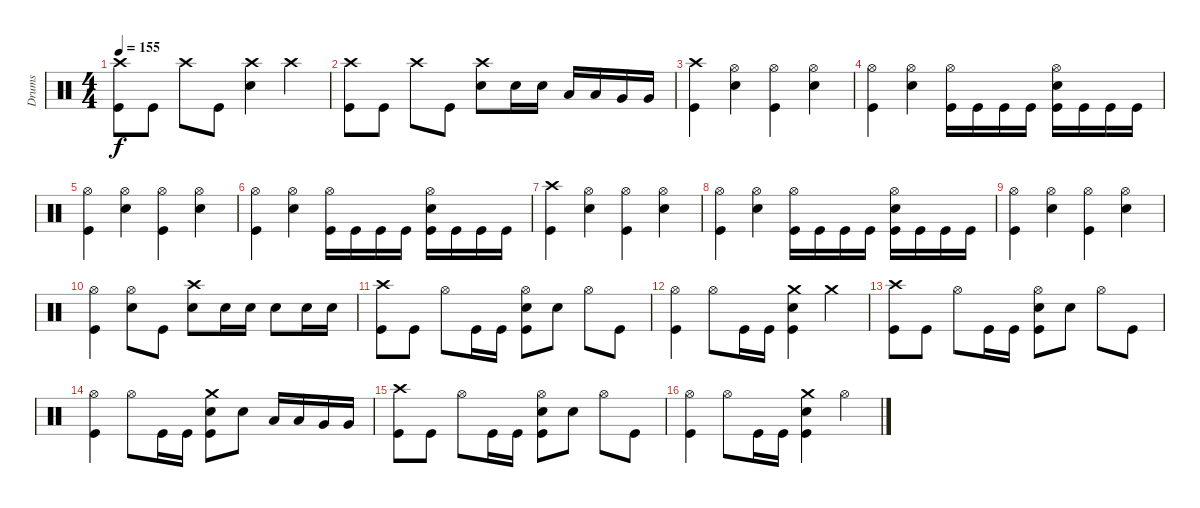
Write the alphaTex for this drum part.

\track ("Drums" "Drums") {instrument percussion}
\staff {score}
\articulation defaults
\ts (4 4)
\tempo 155
\clef neutral
\ks c
("Crash high (hit)" "Kick (hit)").8{dy f} "Kick (hit)".8 "Crash high (hit)".8 "Kick (hit)".8 ("Crash high (hit)" "Snare (hit) 2").4 "Crash high (hit)".4 |
("Crash high (hit)" "Kick (hit)").8 "Kick (hit)".8 "Crash high (hit)".8 "Kick (hit)".8 ("Crash high (hit)" "Snare (hit) 2").8 "Snare (hit) 2".16 "Snare (hit) 2".16 "Low Tom (hit)".16 "Low Tom (hit)".16 "Very Low Tom (hit)".16 "Very Low Tom (hit)".16 |
("Crash high (hit)" "Kick (hit)").4 ("Hi-Hat (open)" "Snare (hit) 2").4 ("Hi-Hat (open)" "Kick (hit)").4 ("Hi-Hat (open)" "Snare (hit) 2").4 |
("Hi-Hat (open)" "Kick (hit)").4 ("Hi-Hat (open)" "Snare (hit) 2").4 ("Hi-Hat (open)" "Kick (hit)").16 "Kick (hit)".16 "Kick (hit)".16 "Kick (hit)".16 ("Hi-Hat (open)" "Snare (hit) 2" "Kick (hit)").16 "Kick (hit)".16 "Kick (hit)".16 "Kick (hit)".16 |
("Hi-Hat (open)" "Kick (hit)").4 ("Hi-Hat (open)" "Snare (hit) 2").4 ("Hi-Hat (open)" "Kick (hit)").4 ("Hi-Hat (open)" "Snare (hit) 2").4 |
("Hi-Hat (open)" "Kick (hit)").4 ("Hi-Hat (open)" "Snare (hit) 2").4 ("Hi-Hat (open)" "Kick (hit)").16 "Kick (hit)".16 "Kick (hit)".16 "Kick (hit)".16 ("Hi-Hat (open)" "Snare (hit) 2" "Kick (hit)").16 "Kick (hit)".16 "Kick (hit)".16 "Kick (hit)".16 |
("Crash high (hit)" "Kick (hit)").4 ("Hi-Hat (open)" "Snare (hit) 2").4 ("Hi-Hat (open)" "Kick (hit)").4 ("Hi-Hat (open)" "Snare (hit) 2").4 |
("Hi-Hat (open)" "Kick (hit)").4 ("Hi-Hat (open)" "Snare (hit) 2").4 ("Hi-Hat (open)" "Kick (hit)").16 "Kick (hit)".16 "Kick (hit)".16 "Kick (hit)".16 ("Hi-Hat (open)" "Snare (hit) 2" "Kick (hit)").16 "Kick (hit)".16 "Kick (hit)".16 "Kick (hit)".16 |
("Hi-Hat (open)" "Kick (hit)").4 ("Hi-Hat (open)" "Snare (hit) 2").4 ("Hi-Hat (open)" "Kick (hit)").4 ("Hi-Hat (open)" "Snare (hit) 2").4 |
("Hi-Hat (open)" "Kick (hit)").4 ("Hi-Hat (open)" "Snare (hit) 2").8 "Kick (hit)".8 ("Crash high (hit)" "Snare (hit) 2").8 "Snare (hit) 2".16 "Snare (hit) 2".16 "Snare (hit) 2".8 "Snare (hit) 2".16 "Snare (hit) 2".16 |
("Crash high (hit)" "Kick (hit)").8 "Kick (hit)".8 "Hi-Hat (open)".8 "Kick (hit)".16 "Kick (hit)".16 ("Hi-Hat (open)" "Snare (hit) 2" "Kick (hit)").8 "Snare (hit) 2".8 "Hi-Hat (open)".8 "Kick (hit)".8 |
("Hi-Hat (open)" "Kick (hit)").4 "Hi-Hat (open)".8 "Kick (hit)".16 "Kick (hit)".16 ("Crash medium (hit)" "Snare (hit) 2" "Kick (hit)").4 "Crash medium (hit)".4 |
("Crash high (hit)" "Kick (hit)").8 "Kick (hit)".8 "Hi-Hat (open)".8 "Kick (hit)".16 "Kick (hit)".16 ("Hi-Hat (open)" "Snare (hit) 2" "Kick (hit)").8 "Snare (hit) 2".8 "Hi-Hat (open)".8 "Kick (hit)".8 |
("Hi-Hat (open)" "Kick (hit)").4 "Hi-Hat (open)".8 "Kick (hit)".16 "Kick (hit)".16 ("Crash medium (hit)" "Snare (hit) 2" "Kick (hit)").8 "Snare (hit) 2".8 "Low Tom (hit)".16 "Low Tom (hit)".16 "Very Low Tom (hit)".16 "Very Low Tom (hit)".16 |
("Crash high (hit)" "Kick (hit)").8 "Kick (hit)".8 "Hi-Hat (open)".8 "Kick (hit)".16 "Kick (hit)".16 ("Hi-Hat (open)" "Snare (hit) 2" "Kick (hit)").8 "Snare (hit) 2".8 "Hi-Hat (open)".8 "Kick (hit)".8 |
("Hi-Hat (open)" "Kick (hit)").4 "Hi-Hat (open)".8 "Kick (hit)".16 "Kick (hit)".16 ("Crash medium (hit)" "Snare (hit) 2" "Kick (hit)").4 "Hi-Hat (open)".4
